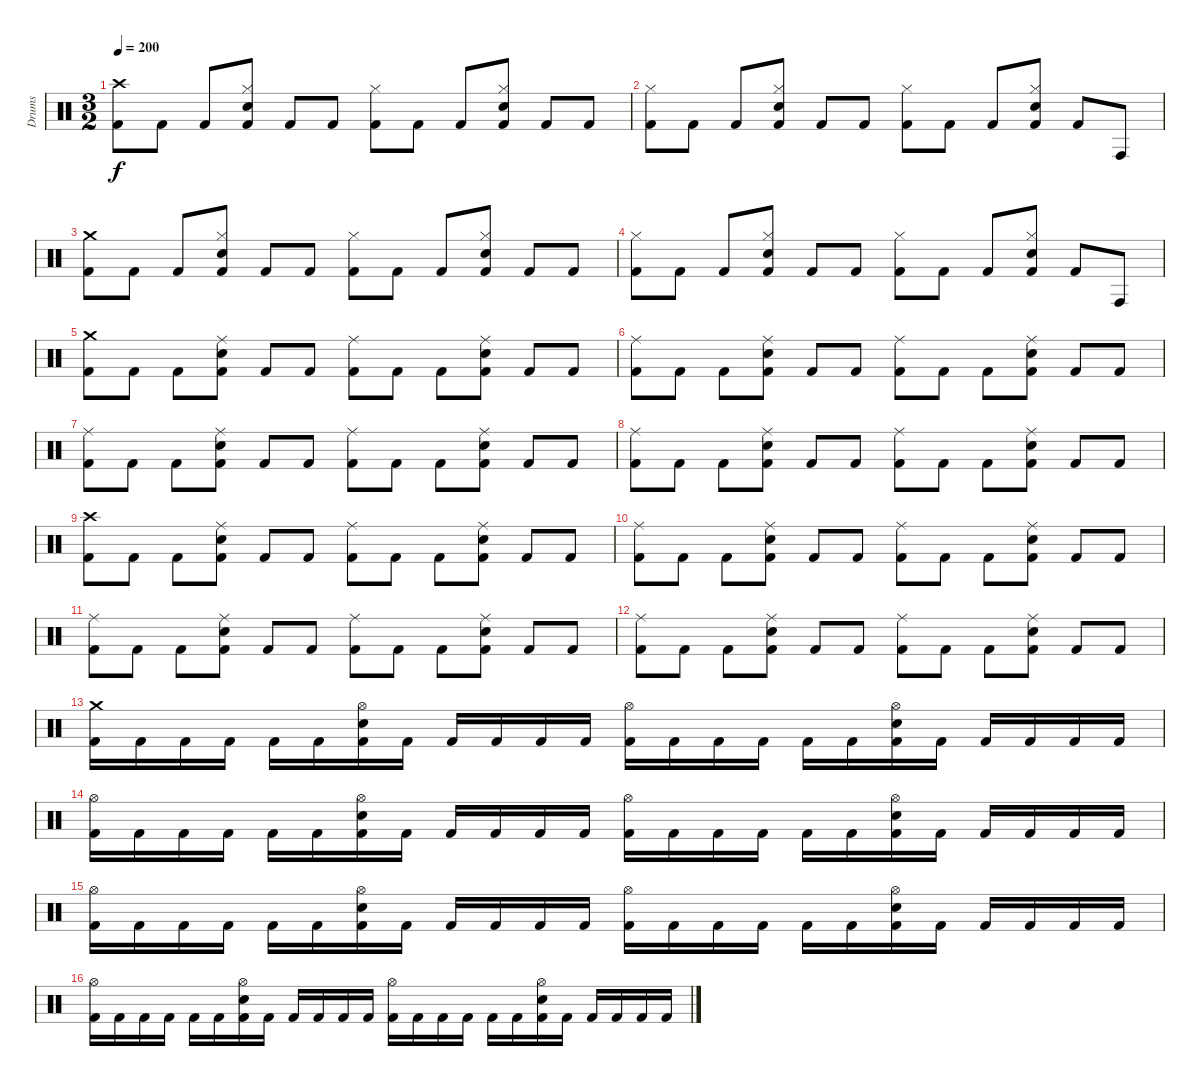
\track ("Drums" "Drums") {instrument percussion}
\staff {score}
\articulation defaults
\ts (3 2)
\tempo 200
\clef neutral
\ks c
("Kick (hit) 2" "Crash high (hit)").8{dy f} "Kick (hit) 2".8 "Kick (hit) 2".8 ("Kick (hit) 2" "Hi-Hat (closed)" "Snare (hit) 2").8 "Kick (hit) 2".8 "Kick (hit) 2".8 ("Kick (hit) 2" "Hi-Hat (closed)").8 "Kick (hit) 2".8 "Kick (hit) 2".8 ("Kick (hit) 2" "Hi-Hat (closed)" "Snare (hit) 2").8 "Kick (hit) 2".8 "Kick (hit) 2".8 |
("Kick (hit) 2" "Hi-Hat (closed)").8 "Kick (hit) 2".8 "Kick (hit) 2".8 ("Kick (hit) 2" "Hi-Hat (closed)" "Snare (hit) 2").8 "Kick (hit) 2".8 "Kick (hit) 2".8 ("Kick (hit) 2" "Hi-Hat (closed)").8 "Kick (hit) 2".8 "Kick (hit) 2".8 ("Kick (hit) 2" "Hi-Hat (closed)" "Snare (hit) 2").8 "Kick (hit) 2".8 "Conga high (hit)".8 |
("Kick (hit) 2" "Crash medium (hit)").8 "Kick (hit) 2".8 "Kick (hit) 2".8 ("Kick (hit) 2" "Hi-Hat (closed)" "Snare (hit) 2").8 "Kick (hit) 2".8 "Kick (hit) 2".8 ("Kick (hit) 2" "Hi-Hat (closed)").8 "Kick (hit) 2".8 "Kick (hit) 2".8 ("Kick (hit) 2" "Hi-Hat (closed)" "Snare (hit) 2").8 "Kick (hit) 2".8 "Kick (hit) 2".8 |
("Kick (hit) 2" "Hi-Hat (closed)").8 "Kick (hit) 2".8 "Kick (hit) 2".8 ("Kick (hit) 2" "Hi-Hat (closed)" "Snare (hit) 2").8 "Kick (hit) 2".8 "Kick (hit) 2".8 ("Kick (hit) 2" "Hi-Hat (closed)").8 "Kick (hit) 2".8 "Kick (hit) 2".8 ("Kick (hit) 2" "Hi-Hat (closed)" "Snare (hit) 2").8 "Kick (hit) 2".8 "Conga high (hit)".8 |
("Kick (hit) 2" "Crash medium (hit)").8 "Kick (hit) 2".8 "Kick (hit) 2".8 ("Kick (hit) 2" "Ride (middle)" "Snare (hit) 2").8 "Kick (hit) 2".8 "Kick (hit) 2".8 ("Kick (hit) 2" "Ride (middle)").8 "Kick (hit) 2".8 "Kick (hit) 2".8 ("Kick (hit) 2" "Ride (middle)" "Snare (hit) 2").8 "Kick (hit) 2".8 "Kick (hit) 2".8 |
("Kick (hit) 2" "Ride (middle)").8 "Kick (hit) 2".8 "Kick (hit) 2".8 ("Kick (hit) 2" "Ride (middle)" "Snare (hit) 2").8 "Kick (hit) 2".8 "Kick (hit) 2".8 ("Kick (hit) 2" "Ride (middle)").8 "Kick (hit) 2".8 "Kick (hit) 2".8 ("Kick (hit) 2" "Ride (middle)" "Snare (hit) 2").8 "Kick (hit) 2".8 "Kick (hit) 2".8 |
("Kick (hit) 2" "Ride (middle)").8 "Kick (hit) 2".8 "Kick (hit) 2".8 ("Kick (hit) 2" "Ride (middle)" "Snare (hit) 2").8 "Kick (hit) 2".8 "Kick (hit) 2".8 ("Kick (hit) 2" "Ride (middle)").8 "Kick (hit) 2".8 "Kick (hit) 2".8 ("Kick (hit) 2" "Ride (middle)" "Snare (hit) 2").8 "Kick (hit) 2".8 "Kick (hit) 2".8 |
("Kick (hit) 2" "Ride (middle)").8 "Kick (hit) 2".8 "Kick (hit) 2".8 ("Kick (hit) 2" "Ride (middle)" "Snare (hit) 2").8 "Kick (hit) 2".8 "Kick (hit) 2".8 ("Kick (hit) 2" "Ride (middle)").8 "Kick (hit) 2".8 "Kick (hit) 2".8 ("Kick (hit) 2" "Ride (middle)" "Snare (hit) 2").8 "Kick (hit) 2".8 "Kick (hit) 2".8 |
("Kick (hit) 2" "Crash high (hit)").8 "Kick (hit) 2".8 "Kick (hit) 2".8 ("Kick (hit) 2" "Ride (middle)" "Snare (hit) 2").8 "Kick (hit) 2".8 "Kick (hit) 2".8 ("Kick (hit) 2" "Ride (middle)").8 "Kick (hit) 2".8 "Kick (hit) 2".8 ("Kick (hit) 2" "Ride (middle)" "Snare (hit) 2").8 "Kick (hit) 2".8 "Kick (hit) 2".8 |
("Kick (hit) 2" "Ride (middle)").8 "Kick (hit) 2".8 "Kick (hit) 2".8 ("Kick (hit) 2" "Ride (middle)" "Snare (hit) 2").8 "Kick (hit) 2".8 "Kick (hit) 2".8 ("Kick (hit) 2" "Ride (middle)").8 "Kick (hit) 2".8 "Kick (hit) 2".8 ("Kick (hit) 2" "Ride (middle)" "Snare (hit) 2").8 "Kick (hit) 2".8 "Kick (hit) 2".8 |
("Kick (hit) 2" "Ride (middle)").8 "Kick (hit) 2".8 "Kick (hit) 2".8 ("Kick (hit) 2" "Ride (middle)" "Snare (hit) 2").8 "Kick (hit) 2".8 "Kick (hit) 2".8 ("Kick (hit) 2" "Ride (middle)").8 "Kick (hit) 2".8 "Kick (hit) 2".8 ("Kick (hit) 2" "Ride (middle)" "Snare (hit) 2").8 "Kick (hit) 2".8 "Kick (hit) 2".8 |
("Kick (hit) 2" "Ride (middle)").8 "Kick (hit) 2".8 "Kick (hit) 2".8 ("Kick (hit) 2" "Ride (middle)" "Snare (hit) 2").8 "Kick (hit) 2".8 "Kick (hit) 2".8 ("Kick (hit) 2" "Ride (middle)").8 "Kick (hit) 2".8 "Kick (hit) 2".8 ("Kick (hit) 2" "Ride (middle)" "Snare (hit) 2").8 "Kick (hit) 2".8 "Kick (hit) 2".8 |
("Kick (hit) 2" "Crash medium (hit)").16 "Kick (hit) 2".16 "Kick (hit) 2".16 "Kick (hit) 2".16 "Kick (hit) 2".16 "Kick (hit) 2".16 ("Kick (hit) 2" "Hi-Hat (open)" "Snare (hit) 2").16 "Kick (hit) 2".16 "Kick (hit) 2".16 "Kick (hit) 2".16 "Kick (hit) 2".16 "Kick (hit) 2".16 ("Kick (hit) 2" "Hi-Hat (open)").16 "Kick (hit) 2".16 "Kick (hit) 2".16 "Kick (hit) 2".16 "Kick (hit) 2".16 "Kick (hit) 2".16 ("Kick (hit) 2" "Hi-Hat (open)" "Snare (hit) 2").16 "Kick (hit) 2".16 "Kick (hit) 2".16 "Kick (hit) 2".16 "Kick (hit) 2".16 "Kick (hit) 2".16 |
("Kick (hit) 2" "Hi-Hat (open)").16 "Kick (hit) 2".16 "Kick (hit) 2".16 "Kick (hit) 2".16 "Kick (hit) 2".16 "Kick (hit) 2".16 ("Kick (hit) 2" "Hi-Hat (open)" "Snare (hit) 2").16 "Kick (hit) 2".16 "Kick (hit) 2".16 "Kick (hit) 2".16 "Kick (hit) 2".16 "Kick (hit) 2".16 ("Kick (hit) 2" "Hi-Hat (open)").16 "Kick (hit) 2".16 "Kick (hit) 2".16 "Kick (hit) 2".16 "Kick (hit) 2".16 "Kick (hit) 2".16 ("Kick (hit) 2" "Hi-Hat (open)" "Snare (hit) 2").16 "Kick (hit) 2".16 "Kick (hit) 2".16 "Kick (hit) 2".16 "Kick (hit) 2".16 "Kick (hit) 2".16 |
("Kick (hit) 2" "Hi-Hat (open)").16 "Kick (hit) 2".16 "Kick (hit) 2".16 "Kick (hit) 2".16 "Kick (hit) 2".16 "Kick (hit) 2".16 ("Kick (hit) 2" "Hi-Hat (open)" "Snare (hit) 2").16 "Kick (hit) 2".16 "Kick (hit) 2".16 "Kick (hit) 2".16 "Kick (hit) 2".16 "Kick (hit) 2".16 ("Kick (hit) 2" "Hi-Hat (open)").16 "Kick (hit) 2".16 "Kick (hit) 2".16 "Kick (hit) 2".16 "Kick (hit) 2".16 "Kick (hit) 2".16 ("Kick (hit) 2" "Hi-Hat (open)" "Snare (hit) 2").16 "Kick (hit) 2".16 "Kick (hit) 2".16 "Kick (hit) 2".16 "Kick (hit) 2".16 "Kick (hit) 2".16 |
("Kick (hit) 2" "Hi-Hat (open)").16 "Kick (hit) 2".16 "Kick (hit) 2".16 "Kick (hit) 2".16 "Kick (hit) 2".16 "Kick (hit) 2".16 ("Kick (hit) 2" "Hi-Hat (open)" "Snare (hit) 2").16 "Kick (hit) 2".16 "Kick (hit) 2".16 "Kick (hit) 2".16 "Kick (hit) 2".16 "Kick (hit) 2".16 ("Kick (hit) 2" "Hi-Hat (open)").16 "Kick (hit) 2".16 "Kick (hit) 2".16 "Kick (hit) 2".16 "Kick (hit) 2".16 "Kick (hit) 2".16 ("Kick (hit) 2" "Hi-Hat (open)" "Snare (hit) 2").16 "Kick (hit) 2".16 "Kick (hit) 2".16 "Kick (hit) 2".16 "Kick (hit) 2".16 "Kick (hit) 2".16
